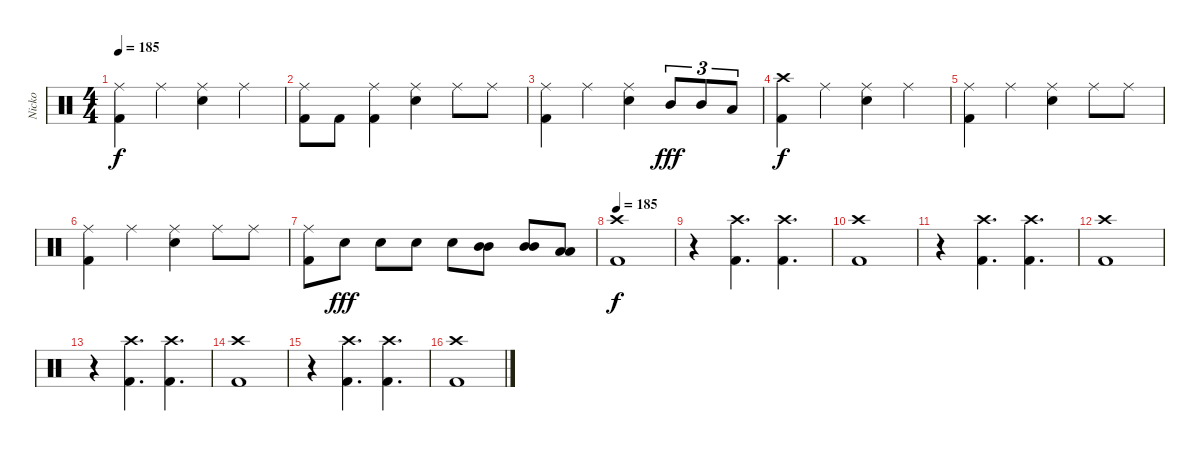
\track ("Nicko" "Nicko") {instrument percussion}
\staff {score}
\articulation defaults
\ts (4 4)
\tempo 185
\clef neutral
\ks c
("Ride (middle)" "Kick (hit) 2").4{dy f} "Ride (middle)".4 ("Ride (middle)" "Snare (hit) 2").4 "Ride (middle)".4 |
("Ride (middle)" "Kick (hit) 2").8 "Kick (hit) 2".8 ("Ride (middle)" "Kick (hit) 2").4 ("Ride (middle)" "Snare (hit) 2").4 "Ride (middle)".8 "Ride (middle)".8 |
("Ride (middle)" "Kick (hit) 2").4 "Ride (middle)".4 ("Ride (middle)" "Snare (hit) 2").4 "Mid Tom (hit)".8{tu (3 2) dy fff} "Mid Tom (hit)".8{tu (3 2)} "Low Tom (hit)".8{tu (3 2)} |
("Crash high (hit)" "Kick (hit) 2").4{dy f} "Ride (middle)".4 ("Ride (middle)" "Snare (hit) 2").4 "Ride (middle)".4 |
("Ride (middle)" "Kick (hit) 2").4 "Ride (middle)".4 ("Ride (middle)" "Snare (hit) 2").4 "Ride (middle)".8 "Ride (middle)".8 |
("Ride (middle)" "Kick (hit) 2").4 "Ride (middle)".4 ("Ride (middle)" "Snare (hit) 2").4 "Ride (middle)".8 "Ride (middle)".8 |
("Ride (middle)" "Kick (hit) 2").8 "Snare (hit) 2".8{dy fff} "Snare (hit) 2".8 "Snare (hit) 2".8 "Snare (hit) 2".8 ("Mid Tom (hit)" "Mid Tom (hit)").8 ("Mid Tom (hit)" "Mid Tom (hit)").8 ("Low Tom (hit)" "Low Tom (hit)").8 |
\tempo 185
("Crash high (hit)" "Kick (hit) 2").1{dy f} |
r.4 ("Crash high (hit)" "Kick (hit) 2").4{d} ("Crash high (hit)" "Kick (hit) 2").4{d} |
("Crash high (hit)" "Kick (hit) 2").1 |
r.4 ("Crash high (hit)" "Kick (hit) 2").4{d} ("Crash high (hit)" "Kick (hit) 2").4{d} |
("Crash high (hit)" "Kick (hit) 2").1 |
r.4 ("Crash high (hit)" "Kick (hit) 2").4{d} ("Crash high (hit)" "Kick (hit) 2").4{d} |
("Crash high (hit)" "Kick (hit) 2").1 |
r.4 ("Crash high (hit)" "Kick (hit) 2").4{d} ("Crash high (hit)" "Kick (hit) 2").4{d} |
("Crash high (hit)" "Kick (hit) 2").1
